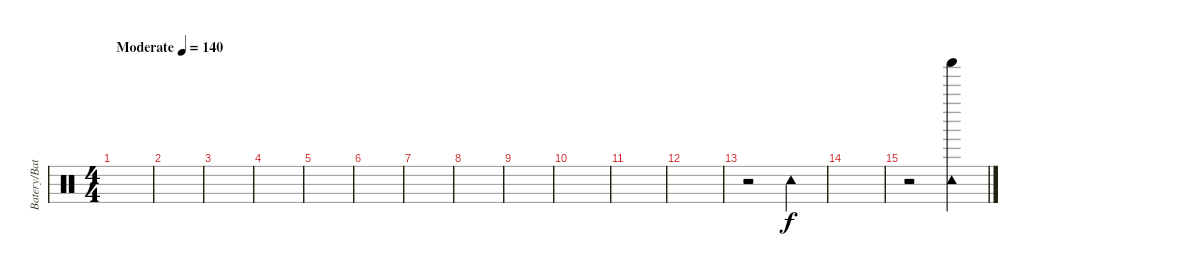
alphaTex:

\track ("Batery/Bateria" "Batery/Bat") {instrument percussion}
\staff {score}
\articulation defaults
\ts (4 4)
\tempo (140 "Moderate")
\clef neutral
\ks c
|
|
|
|
|
|
|
|
|
|
|
|
r.2 "Tambourine (hit)".4 |
|
r.2 ("Tambourine (hit)" "Shaker (hit)").4
